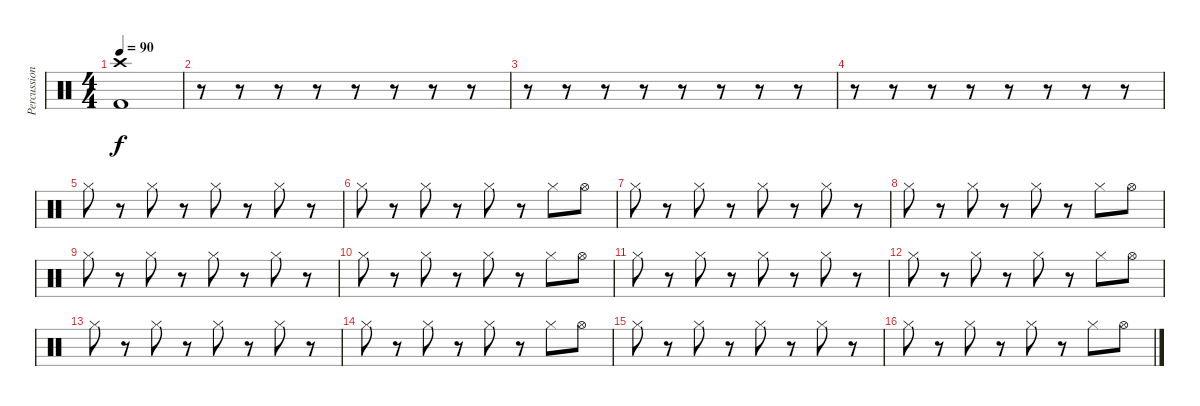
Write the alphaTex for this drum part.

\track ("Percussion" "Percussion") {instrument percussion}
\staff {score}
\articulation defaults
\ts (4 4)
\tempo 90
\clef neutral
\ks c
("Kick (hit) 2" "Crash high (hit)").1{dy f} |
r.8 r.8 r.8 r.8 r.8 r.8 r.8 r.8 |
r.8 r.8 r.8 r.8 r.8 r.8 r.8 r.8 |
r.8 r.8 r.8 r.8 r.8 r.8 r.8 r.8 |
"Hi-Hat (closed)".8 r.8 "Hi-Hat (closed)".8 r.8 "Hi-Hat (closed)".8 r.8 "Hi-Hat (closed)".8 r.8 |
"Hi-Hat (closed)".8 r.8 "Hi-Hat (closed)".8 r.8 "Hi-Hat (closed)".8 r.8 "Hi-Hat (closed)".8 "Hi-Hat (open)".8 |
"Hi-Hat (closed)".8 r.8 "Hi-Hat (closed)".8 r.8 "Hi-Hat (closed)".8 r.8 "Hi-Hat (closed)".8 r.8 |
"Hi-Hat (closed)".8 r.8 "Hi-Hat (closed)".8 r.8 "Hi-Hat (closed)".8 r.8 "Hi-Hat (closed)".8 "Hi-Hat (open)".8 |
"Hi-Hat (closed)".8 r.8 "Hi-Hat (closed)".8 r.8 "Hi-Hat (closed)".8 r.8 "Hi-Hat (closed)".8 r.8 |
"Hi-Hat (closed)".8 r.8 "Hi-Hat (closed)".8 r.8 "Hi-Hat (closed)".8 r.8 "Hi-Hat (closed)".8 "Hi-Hat (open)".8 |
"Hi-Hat (closed)".8 r.8 "Hi-Hat (closed)".8 r.8 "Hi-Hat (closed)".8 r.8 "Hi-Hat (closed)".8 r.8 |
"Hi-Hat (closed)".8 r.8 "Hi-Hat (closed)".8 r.8 "Hi-Hat (closed)".8 r.8 "Hi-Hat (closed)".8 "Hi-Hat (open)".8 |
"Hi-Hat (closed)".8 r.8 "Hi-Hat (closed)".8 r.8 "Hi-Hat (closed)".8 r.8 "Hi-Hat (closed)".8 r.8 |
"Hi-Hat (closed)".8 r.8 "Hi-Hat (closed)".8 r.8 "Hi-Hat (closed)".8 r.8 "Hi-Hat (closed)".8 "Hi-Hat (open)".8 |
"Hi-Hat (closed)".8 r.8 "Hi-Hat (closed)".8 r.8 "Hi-Hat (closed)".8 r.8 "Hi-Hat (closed)".8 r.8 |
"Hi-Hat (closed)".8 r.8 "Hi-Hat (closed)".8 r.8 "Hi-Hat (closed)".8 r.8 "Hi-Hat (closed)".8 "Hi-Hat (open)".8
